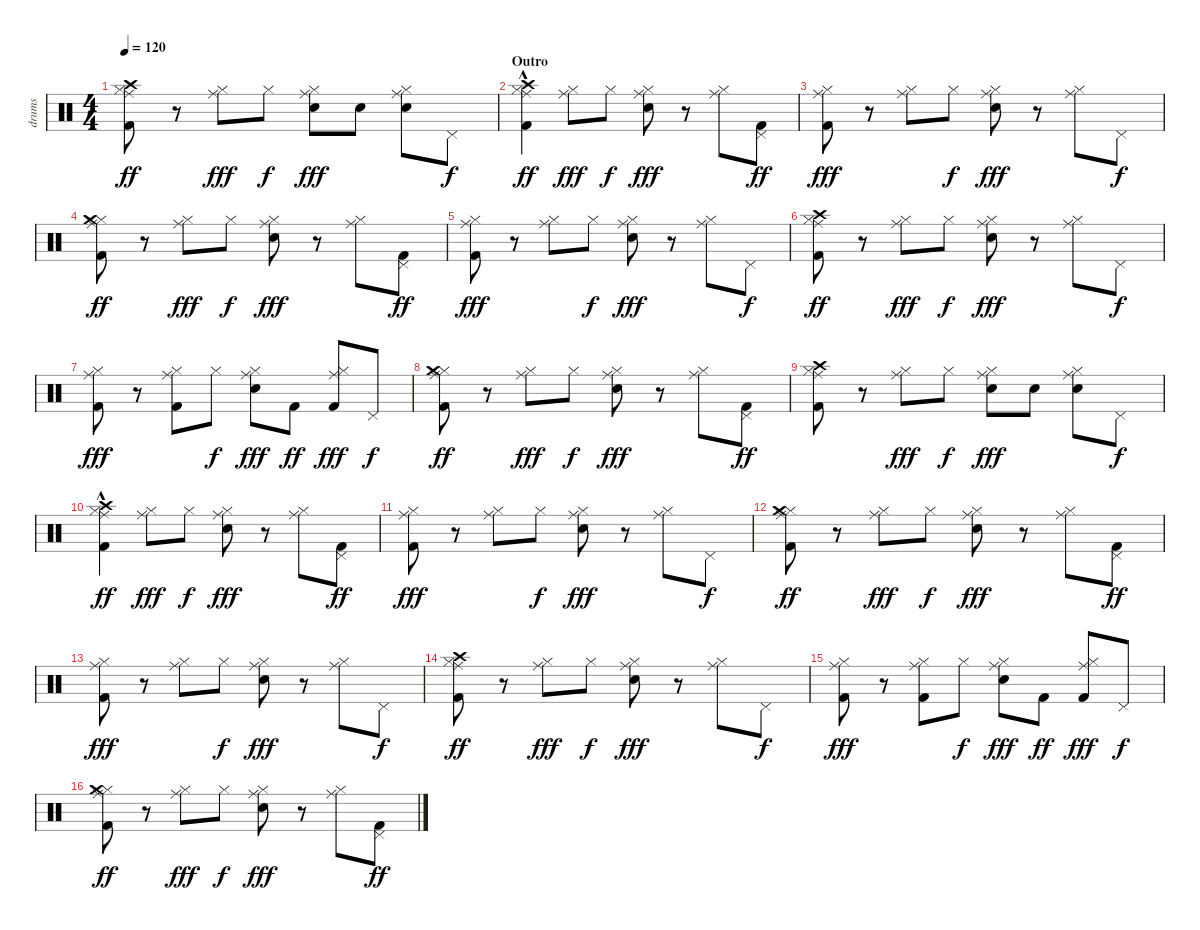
\track ("drums" "drums") {instrument percussion}
\staff {score}
\articulation defaults
\ts (4 4)
\tempo 120
\clef neutral
\ks c
("Kick (hit) 2" "Hi-Hat (closed)" "Ride (middle)" "Crash high (hit)").8{dy ff} r.8 ("Hi-Hat (closed)" "Ride (middle)").8{dy fff} "Hi-Hat (closed)".8{dy f} ("Snare (hit) 2" "Hi-Hat (closed)" "Ride (middle)").8{dy fff} "Snare (hit) 2".8 ("Snare (hit) 2" "Hi-Hat (closed)" "Ride (middle)").8 "Pedal Hi-Hat (hit)".8{dy f} |
\section ("" "Outro")
("Kick (hit) 2" "Hi-Hat (closed)" "Ride (middle)" "Crash high (hit)"{hac}).4{dy ff} ("Hi-Hat (closed)" "Ride (middle)").8{dy fff} "Hi-Hat (closed)".8{dy f} ("Snare (hit) 2" "Hi-Hat (closed)" "Ride (middle)").8{dy fff} r.8 ("Hi-Hat (closed)" "Ride (middle)").8 ("Kick (hit) 2" "Pedal Hi-Hat (hit)").8{dy ff} |
("Kick (hit) 2" "Hi-Hat (closed)" "Ride (middle)").8{dy fff} r.8 ("Hi-Hat (closed)" "Ride (middle)").8 "Hi-Hat (closed)".8{dy f} ("Snare (hit) 2" "Hi-Hat (closed)" "Ride (middle)").8{dy fff} r.8 ("Hi-Hat (closed)" "Ride (middle)").8 "Pedal Hi-Hat (hit)".8{dy f} |
("Kick (hit) 2" "Hi-Hat (closed)" "Ride (middle)" "Crash medium (hit)").8{dy ff} r.8 ("Hi-Hat (closed)" "Ride (middle)").8{dy fff} "Hi-Hat (closed)".8{dy f} ("Snare (hit) 2" "Hi-Hat (closed)" "Ride (middle)").8{dy fff} r.8 ("Hi-Hat (closed)" "Ride (middle)").8 ("Kick (hit) 2" "Pedal Hi-Hat (hit)").8{dy ff} |
("Kick (hit) 2" "Hi-Hat (closed)" "Ride (middle)").8{dy fff} r.8 ("Hi-Hat (closed)" "Ride (middle)").8 "Hi-Hat (closed)".8{dy f} ("Snare (hit) 2" "Hi-Hat (closed)" "Ride (middle)").8{dy fff} r.8 ("Hi-Hat (closed)" "Ride (middle)").8 "Pedal Hi-Hat (hit)".8{dy f} |
("Kick (hit) 2" "Hi-Hat (closed)" "Ride (middle)" "Crash high (hit)").8{dy ff} r.8 ("Hi-Hat (closed)" "Ride (middle)").8{dy fff} "Hi-Hat (closed)".8{dy f} ("Snare (hit) 2" "Hi-Hat (closed)" "Ride (middle)").8{dy fff} r.8 ("Hi-Hat (closed)" "Ride (middle)").8 "Pedal Hi-Hat (hit)".8{dy f} |
("Kick (hit) 2" "Hi-Hat (closed)" "Ride (middle)").8{dy fff} r.8 ("Kick (hit) 2" "Hi-Hat (closed)" "Ride (middle)").8 "Hi-Hat (closed)".8{dy f volume 16} ("Snare (hit) 2" "Hi-Hat (closed)" "Ride (middle)").8{dy fff} "Kick (hit) 2".8{dy ff} ("Kick (hit) 2" "Hi-Hat (closed)" "Ride (middle)").8{dy fff volume 16} "Pedal Hi-Hat (hit)".8{dy f volume 16} |
("Kick (hit) 2" "Hi-Hat (closed)" "Ride (middle)" "Crash medium (hit)").8{dy ff} r.8 ("Hi-Hat (closed)" "Ride (middle)").8{dy fff volume 15} "Hi-Hat (closed)".8{dy f volume 15} ("Snare (hit) 2" "Hi-Hat (closed)" "Ride (middle)").8{dy fff} r.8 ("Hi-Hat (closed)" "Ride (middle)").8{volume 15} ("Kick (hit) 2" "Pedal Hi-Hat (hit)").8{dy ff volume 15} |
("Kick (hit) 2" "Hi-Hat (closed)" "Ride (middle)" "Crash high (hit)").8{volume 14} r.8 ("Hi-Hat (closed)" "Ride (middle)").8{dy fff volume 14} "Hi-Hat (closed)".8{dy f volume 14} ("Snare (hit) 2" "Hi-Hat (closed)" "Ride (middle)").8{dy fff} "Snare (hit) 2".8 ("Snare (hit) 2" "Hi-Hat (closed)" "Ride (middle)").8{volume 14} "Pedal Hi-Hat (hit)".8{dy f volume 14} |
("Kick (hit) 2" "Hi-Hat (closed)" "Ride (middle)" "Crash high (hit)"{hac}).4{dy ff volume 13} ("Hi-Hat (closed)" "Ride (middle)").8{dy fff volume 13} "Hi-Hat (closed)".8{dy f volume 13} ("Snare (hit) 2" "Hi-Hat (closed)" "Ride (middle)").8{dy fff volume 13} r.8 ("Hi-Hat (closed)" "Ride (middle)").8{volume 12} ("Kick (hit) 2" "Pedal Hi-Hat (hit)").8{dy ff volume 12} |
("Kick (hit) 2" "Hi-Hat (closed)" "Ride (middle)").8{dy fff} r.8 ("Hi-Hat (closed)" "Ride (middle)").8{volume 12} "Hi-Hat (closed)".8{dy f volume 12} ("Snare (hit) 2" "Hi-Hat (closed)" "Ride (middle)").8{dy fff volume 12} r.8 ("Hi-Hat (closed)" "Ride (middle)").8{volume 12} "Pedal Hi-Hat (hit)".8{dy f volume 11} |
("Kick (hit) 2" "Hi-Hat (closed)" "Ride (middle)" "Crash medium (hit)").8{dy ff volume 11} r.8 ("Hi-Hat (closed)" "Ride (middle)").8{dy fff volume 11} "Hi-Hat (closed)".8{dy f} ("Snare (hit) 2" "Hi-Hat (closed)" "Ride (middle)").8{dy fff volume 11} r.8 ("Hi-Hat (closed)" "Ride (middle)").8{volume 10} ("Kick (hit) 2" "Pedal Hi-Hat (hit)").8{dy ff volume 10} |
("Kick (hit) 2" "Hi-Hat (closed)" "Ride (middle)").8{dy fff volume 10} r.8 ("Hi-Hat (closed)" "Ride (middle)").8{volume 10} "Hi-Hat (closed)".8{dy f volume 10} ("Snare (hit) 2" "Hi-Hat (closed)" "Ride (middle)").8{dy fff volume 10} r.8 ("Hi-Hat (closed)" "Ride (middle)").8{volume 10} "Pedal Hi-Hat (hit)".8{dy f volume 9} |
("Kick (hit) 2" "Hi-Hat (closed)" "Ride (middle)" "Crash high (hit)").8{dy ff volume 9} r.8 ("Hi-Hat (closed)" "Ride (middle)").8{dy fff volume 9} "Hi-Hat (closed)".8{dy f volume 9} ("Snare (hit) 2" "Hi-Hat (closed)" "Ride (middle)").8{dy fff volume 8} r.8 ("Hi-Hat (closed)" "Ride (middle)").8{volume 8} "Pedal Hi-Hat (hit)".8{dy f volume 8} |
("Kick (hit) 2" "Hi-Hat (closed)" "Ride (middle)").8{dy fff volume 8} r.8 ("Kick (hit) 2" "Hi-Hat (closed)" "Ride (middle)").8{volume 8} "Hi-Hat (closed)".8{dy f volume 7} ("Snare (hit) 2" "Hi-Hat (closed)" "Ride (middle)").8{dy fff volume 7} "Kick (hit) 2".8{dy ff volume 7} ("Kick (hit) 2" "Hi-Hat (closed)" "Ride (middle)").8{dy fff volume 7} "Pedal Hi-Hat (hit)".8{dy f} |
("Kick (hit) 2" "Hi-Hat (closed)" "Ride (middle)" "Crash medium (hit)").8{dy ff volume 6} r.8 ("Hi-Hat (closed)" "Ride (middle)").8{dy fff volume 6} "Hi-Hat (closed)".8{dy f volume 6} ("Snare (hit) 2" "Hi-Hat (closed)" "Ride (middle)").8{dy fff volume 5} r.8 ("Hi-Hat (closed)" "Ride (middle)").8{volume 5} ("Kick (hit) 2" "Pedal Hi-Hat (hit)").8{dy ff volume 5}
